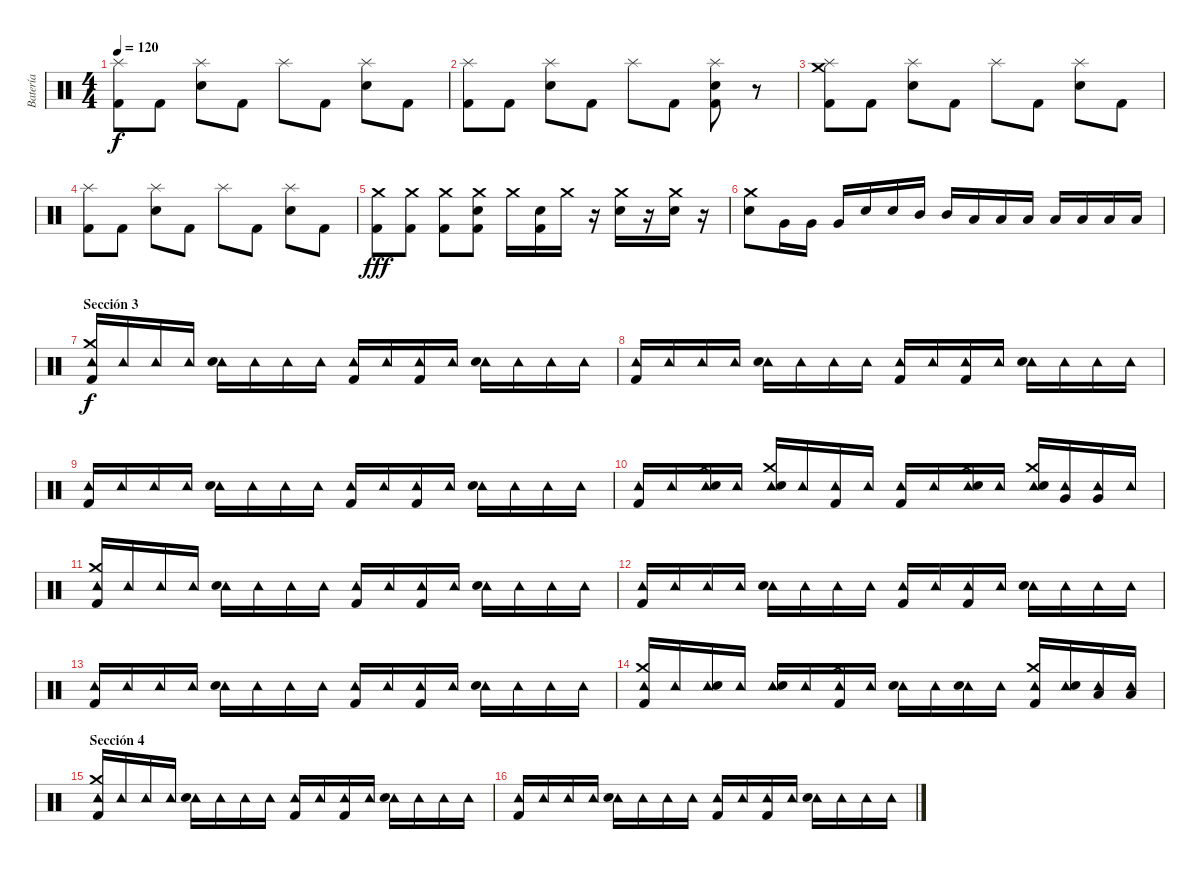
\track ("Batería" "Batería") {instrument percussion}
\staff {score}
\articulation defaults
\ts (4 4)
\tempo 120
\clef neutral
\ks c
("Splash (hit)" "Kick (hit) 2").8{dy f} "Kick (hit) 2".8 ("Splash (hit)" "Electric Snare (hit)").8 "Kick (hit) 2".8 "Splash (hit)".8 "Kick (hit) 2".8 ("Splash (hit)" "Electric Snare (hit)").8 "Kick (hit) 2".8 |
("Splash (hit)" "Kick (hit) 2").8 "Kick (hit) 2".8 ("Splash (hit)" "Electric Snare (hit)").8 "Kick (hit) 2".8 "Splash (hit)".8 "Kick (hit) 2".8 ("Splash (hit)" "Electric Snare (hit)" "Kick (hit) 2").8 r.8 |
("Splash (hit)" "Crash medium (hit)" "Kick (hit) 2").8 "Kick (hit) 2".8 ("Splash (hit)" "Electric Snare (hit)").8 "Kick (hit) 2".8 "Splash (hit)".8 "Kick (hit) 2".8 ("Splash (hit)" "Electric Snare (hit)").8 "Kick (hit) 2".8 |
("Splash (hit)" "Kick (hit) 2").8 "Kick (hit) 2".8 ("Splash (hit)" "Electric Snare (hit)").8 "Kick (hit) 2".8 "Splash (hit)".8 "Kick (hit) 2".8 ("Splash (hit)" "Electric Snare (hit)").8 "Kick (hit) 2".8 |
("Crash medium (hit)" "Kick (hit) 2").8{dy fff} ("Crash medium (hit)" "Kick (hit) 2").8 ("Crash medium (hit)" "Kick (hit) 2").8 ("Crash medium (hit)" "Electric Snare (hit)" "Kick (hit) 2").8 "Crash medium (hit)".16 ("Electric Snare (hit)" "Kick (hit) 2").16 "Crash medium (hit)".16 r.16 ("Crash medium (hit)" "Electric Snare (hit)").16 r.16 ("Crash medium (hit)" "Electric Snare (hit)").16 r.16 |
("Crash medium (hit)" "Electric Snare (hit)").8 "Very Low Tom (hit)".16 "Very Low Tom (hit)".16 "Very Low Tom (hit)".16 "Electric Snare (hit)".16 "Electric Snare (hit)".16 "Mid Tom (hit)".16 "Mid Tom (hit)".16 "Low Tom (hit)".16 "Low Tom (hit)".16 "Low Tom (hit)".16 "Low Tom (hit)".16 "Low Tom (hit)".16 "Low Tom (hit)".16 "Low Tom (hit)".16 |
\section ("" "Sección 3")
("Tambourine (hit)" "Crash medium (hit)" "Kick (hit) 2").16{dy f} "Tambourine (hit)".16 "Tambourine (hit)".16 "Tambourine (hit)".16 ("Tambourine (hit)" "Electric Snare (hit)").16 "Tambourine (hit)".16 "Tambourine (hit)".16 "Tambourine (hit)".16 ("Tambourine (hit)" "Kick (hit) 2").16 "Tambourine (hit)".16 ("Tambourine (hit)" "Kick (hit) 2").16 "Tambourine (hit)".16 ("Tambourine (hit)" "Electric Snare (hit)").16 "Tambourine (hit)".16 "Tambourine (hit)".16 "Tambourine (hit)".16 |
("Tambourine (hit)" "Kick (hit) 2").16 "Tambourine (hit)".16 "Tambourine (hit)".16 "Tambourine (hit)".16 ("Tambourine (hit)" "Electric Snare (hit)").16 "Tambourine (hit)".16 "Tambourine (hit)".16 "Tambourine (hit)".16 ("Tambourine (hit)" "Kick (hit) 2").16 "Tambourine (hit)".16 ("Tambourine (hit)" "Kick (hit) 2").16 "Tambourine (hit)".16 ("Tambourine (hit)" "Electric Snare (hit)").16 "Tambourine (hit)".16 "Tambourine (hit)".16 "Tambourine (hit)".16 |
("Tambourine (hit)" "Kick (hit) 2").16 "Tambourine (hit)".16 "Tambourine (hit)".16 "Tambourine (hit)".16 ("Tambourine (hit)" "Electric Snare (hit)").16 "Tambourine (hit)".16 "Tambourine (hit)".16 "Tambourine (hit)".16 ("Tambourine (hit)" "Kick (hit) 2").16 "Tambourine (hit)".16 ("Tambourine (hit)" "Kick (hit) 2").16 "Tambourine (hit)".16 ("Tambourine (hit)" "Electric Snare (hit)").16 "Tambourine (hit)".16 "Tambourine (hit)".16 "Tambourine (hit)".16 |
("Tambourine (hit)" "Kick (hit) 2").16 "Tambourine (hit)".16 ("Tambourine (hit)" "Crash medium (hit)" "Electric Snare (hit)").16 "Tambourine (hit)".16 ("Tambourine (hit)" "Crash medium (hit)" "Electric Snare (hit)").16 "Tambourine (hit)".16 ("Tambourine (hit)" "Kick (hit) 2").16 "Tambourine (hit)".16 ("Tambourine (hit)" "Kick (hit) 2").16 "Tambourine (hit)".16 ("Tambourine (hit)" "Crash medium (hit)" "Electric Snare (hit)").16 "Tambourine (hit)".16 ("Tambourine (hit)" "Crash medium (hit)" "Electric Snare (hit)").16 ("Tambourine (hit)" "Very Low Tom (hit)").16 ("Tambourine (hit)" "Very Low Tom (hit)").16 "Tambourine (hit)".16 |
("Tambourine (hit)" "Crash medium (hit)" "Kick (hit) 2").16 "Tambourine (hit)".16 "Tambourine (hit)".16 "Tambourine (hit)".16 ("Tambourine (hit)" "Electric Snare (hit)").16 "Tambourine (hit)".16 "Tambourine (hit)".16 "Tambourine (hit)".16 ("Tambourine (hit)" "Kick (hit) 2").16 "Tambourine (hit)".16 ("Tambourine (hit)" "Kick (hit) 2").16 "Tambourine (hit)".16 ("Tambourine (hit)" "Electric Snare (hit)").16 "Tambourine (hit)".16 "Tambourine (hit)".16 "Tambourine (hit)".16 |
("Tambourine (hit)" "Kick (hit) 2").16 "Tambourine (hit)".16 "Tambourine (hit)".16 "Tambourine (hit)".16 ("Tambourine (hit)" "Electric Snare (hit)").16 "Tambourine (hit)".16 "Tambourine (hit)".16 "Tambourine (hit)".16 ("Tambourine (hit)" "Kick (hit) 2").16 "Tambourine (hit)".16 ("Tambourine (hit)" "Kick (hit) 2").16 "Tambourine (hit)".16 ("Tambourine (hit)" "Electric Snare (hit)").16 "Tambourine (hit)".16 "Tambourine (hit)".16 "Tambourine (hit)".16 |
("Tambourine (hit)" "Kick (hit) 2").16 "Tambourine (hit)".16 "Tambourine (hit)".16 "Tambourine (hit)".16 ("Tambourine (hit)" "Electric Snare (hit)").16 "Tambourine (hit)".16 "Tambourine (hit)".16 "Tambourine (hit)".16 ("Tambourine (hit)" "Kick (hit) 2").16 "Tambourine (hit)".16 ("Tambourine (hit)" "Kick (hit) 2").16 "Tambourine (hit)".16 ("Tambourine (hit)" "Electric Snare (hit)").16 "Tambourine (hit)".16 "Tambourine (hit)".16 "Tambourine (hit)".16 |
("Tambourine (hit)" "Crash medium (hit)" "Kick (hit) 2").16 "Tambourine (hit)".16 ("Tambourine (hit)" "Electric Snare (hit)").16 "Tambourine (hit)".16 ("Tambourine (hit)" "Electric Snare (hit)").16 "Tambourine (hit)".16 ("Tambourine (hit)" "Crash medium (hit)" "Kick (hit) 2").16 "Tambourine (hit)".16 ("Tambourine (hit)" "Electric Snare (hit)").16 "Tambourine (hit)".16 ("Tambourine (hit)" "Electric Snare (hit)").16 "Tambourine (hit)".16 ("Tambourine (hit)" "Crash medium (hit)" "Kick (hit) 2").16 ("Tambourine (hit)" "Electric Snare (hit)").16 ("Tambourine (hit)" "Low Tom (hit)").16 ("Tambourine (hit)" "Low Tom (hit)").16 |
\section ("" "Sección 4")
("Tambourine (hit)" "Crash medium (hit)" "Kick (hit) 2").16 "Tambourine (hit)".16 "Tambourine (hit)".16 "Tambourine (hit)".16 ("Tambourine (hit)" "Electric Snare (hit)").16 "Tambourine (hit)".16 "Tambourine (hit)".16 "Tambourine (hit)".16 ("Tambourine (hit)" "Kick (hit) 2").16 "Tambourine (hit)".16 ("Tambourine (hit)" "Kick (hit) 2").16 "Tambourine (hit)".16 ("Tambourine (hit)" "Electric Snare (hit)").16 "Tambourine (hit)".16 "Tambourine (hit)".16 "Tambourine (hit)".16 |
("Tambourine (hit)" "Kick (hit) 2").16 "Tambourine (hit)".16 "Tambourine (hit)".16 "Tambourine (hit)".16 ("Tambourine (hit)" "Electric Snare (hit)").16 "Tambourine (hit)".16 "Tambourine (hit)".16 "Tambourine (hit)".16 ("Tambourine (hit)" "Kick (hit) 2").16 "Tambourine (hit)".16 ("Tambourine (hit)" "Kick (hit) 2").16 "Tambourine (hit)".16 ("Tambourine (hit)" "Electric Snare (hit)").16 "Tambourine (hit)".16 "Tambourine (hit)".16 "Tambourine (hit)".16
